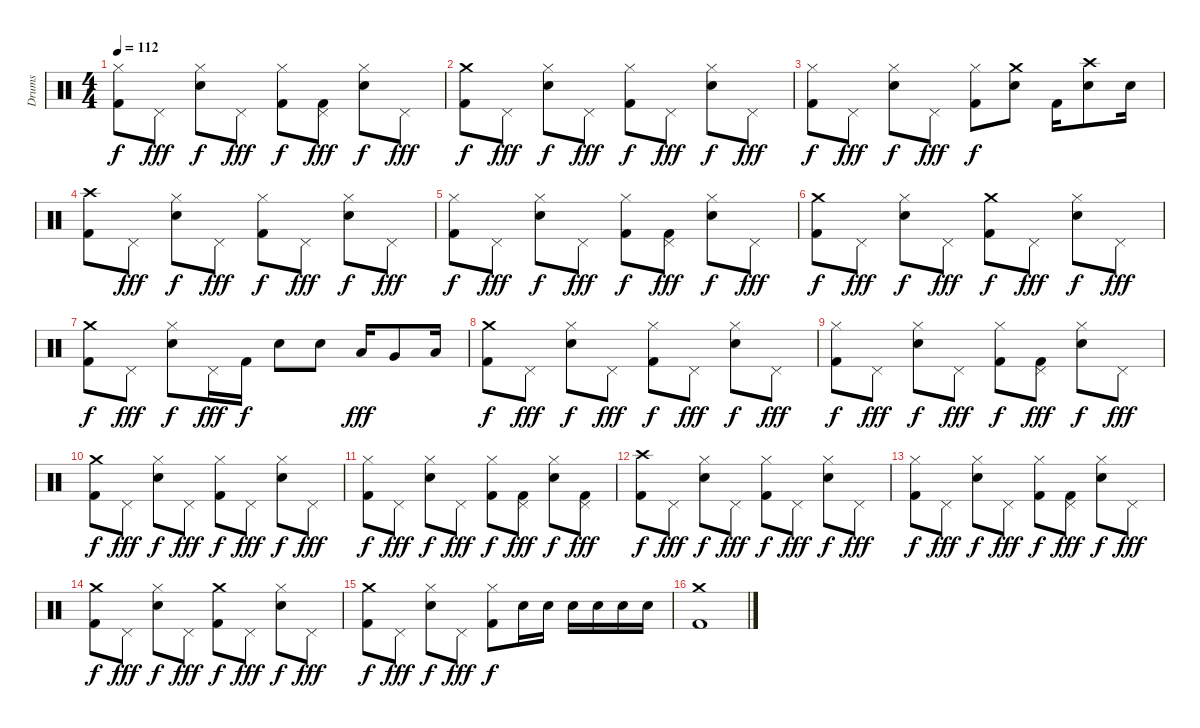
\track ("Drums" "Drums") {instrument percussion}
\staff {score}
\articulation defaults
\ts (4 4)
\tempo 112
\clef neutral
\ks c
("Kick (hit) 2" "Hi-Hat (closed)").8{dy f} "Pedal Hi-Hat (hit)".8{dy fff} ("Hi-Hat (closed)" "Snare (hit) 2").8{dy f} "Pedal Hi-Hat (hit)".8{dy fff} ("Kick (hit) 2" "Hi-Hat (closed)").8{dy f} ("Kick (hit) 2" "Pedal Hi-Hat (hit)").8{dy fff} ("Hi-Hat (closed)" "Snare (hit) 2").8{dy f} "Pedal Hi-Hat (hit)".8{dy fff} |
("Kick (hit) 2" "Crash medium (hit)").8{dy f} "Pedal Hi-Hat (hit)".8{dy fff} ("Hi-Hat (closed)" "Snare (hit) 2").8{dy f} "Pedal Hi-Hat (hit)".8{dy fff} ("Kick (hit) 2" "Hi-Hat (closed)").8{dy f} "Pedal Hi-Hat (hit)".8{dy fff} ("Hi-Hat (closed)" "Snare (hit) 2").8{dy f} "Pedal Hi-Hat (hit)".8{dy fff} |
("Kick (hit) 2" "Hi-Hat (closed)").8{dy f} "Pedal Hi-Hat (hit)".8{dy fff} ("Hi-Hat (closed)" "Snare (hit) 2").8{dy f} "Pedal Hi-Hat (hit)".8{dy fff} ("Kick (hit) 2" "Hi-Hat (closed)").8{dy f} ("Crash medium (hit)" "Snare (hit) 2").8 "Kick (hit) 2".16 ("Crash high (hit)" "Snare (hit) 2").8 "Snare (hit) 2".16 |
("Kick (hit) 2" "Crash high (hit)").8 "Pedal Hi-Hat (hit)".8{dy fff} ("Hi-Hat (closed)" "Snare (hit) 2").8{dy f} "Pedal Hi-Hat (hit)".8{dy fff} ("Kick (hit) 2" "Hi-Hat (closed)").8{dy f} "Pedal Hi-Hat (hit)".8{dy fff} ("Hi-Hat (closed)" "Snare (hit) 2").8{dy f} "Pedal Hi-Hat (hit)".8{dy fff} |
("Kick (hit) 2" "Hi-Hat (closed)").8{dy f} "Pedal Hi-Hat (hit)".8{dy fff} ("Hi-Hat (closed)" "Snare (hit) 2").8{dy f} "Pedal Hi-Hat (hit)".8{dy fff} ("Kick (hit) 2" "Hi-Hat (closed)").8{dy f} ("Kick (hit) 2" "Pedal Hi-Hat (hit)").8{dy fff} ("Hi-Hat (closed)" "Snare (hit) 2").8{dy f} "Pedal Hi-Hat (hit)".8{dy fff} |
("Kick (hit) 2" "Crash medium (hit)").8{dy f} "Pedal Hi-Hat (hit)".8{dy fff} ("Hi-Hat (closed)" "Snare (hit) 2").8{dy f} "Pedal Hi-Hat (hit)".8{dy fff} ("Kick (hit) 2" "Crash medium (hit)").8{dy f} "Pedal Hi-Hat (hit)".8{dy fff} ("Hi-Hat (closed)" "Snare (hit) 2").8{dy f} "Pedal Hi-Hat (hit)".8{dy fff} |
("Kick (hit) 2" "Crash medium (hit)").8{dy f} "Pedal Hi-Hat (hit)".8{dy fff} ("Hi-Hat (closed)" "Snare (hit) 2").8{dy f} "Pedal Hi-Hat (hit)".16{dy fff} "Kick (hit) 2".16{dy f} "Snare (hit) 2".8 "Snare (hit) 2".8 "Low Tom (hit)".16{dy fff} "Very Low Tom (hit)".8 "Low Floor Tom (hit)".16 |
("Kick (hit) 2" "Crash medium (hit)").8{dy f} "Pedal Hi-Hat (hit)".8{dy fff} ("Hi-Hat (closed)" "Snare (hit) 2").8{dy f} "Pedal Hi-Hat (hit)".8{dy fff} ("Kick (hit) 2" "Hi-Hat (closed)").8{dy f} "Pedal Hi-Hat (hit)".8{dy fff} ("Hi-Hat (closed)" "Snare (hit) 2").8{dy f} "Pedal Hi-Hat (hit)".8{dy fff} |
("Kick (hit) 2" "Hi-Hat (closed)").8{dy f} "Pedal Hi-Hat (hit)".8{dy fff} ("Hi-Hat (closed)" "Snare (hit) 2").8{dy f} "Pedal Hi-Hat (hit)".8{dy fff} ("Kick (hit) 2" "Hi-Hat (closed)").8{dy f} ("Kick (hit) 2" "Pedal Hi-Hat (hit)").8{dy fff} ("Hi-Hat (closed)" "Snare (hit) 2").8{dy f} "Pedal Hi-Hat (hit)".8{dy fff} |
("Kick (hit) 2" "Crash medium (hit)").8{dy f} "Pedal Hi-Hat (hit)".8{dy fff} ("Hi-Hat (closed)" "Snare (hit) 2").8{dy f} "Pedal Hi-Hat (hit)".8{dy fff} ("Kick (hit) 2" "Hi-Hat (closed)").8{dy f} "Pedal Hi-Hat (hit)".8{dy fff} ("Hi-Hat (closed)" "Snare (hit) 2").8{dy f} "Pedal Hi-Hat (hit)".8{dy fff} |
("Kick (hit) 2" "Hi-Hat (closed)").8{dy f} "Pedal Hi-Hat (hit)".8{dy fff} ("Hi-Hat (closed)" "Snare (hit) 2").8{dy f} "Pedal Hi-Hat (hit)".8{dy fff} ("Kick (hit) 2" "Hi-Hat (closed)").8{dy f} ("Kick (hit) 2" "Pedal Hi-Hat (hit)").8{dy fff} ("Hi-Hat (closed)" "Snare (hit) 2").8{dy f} ("Kick (hit) 2" "Pedal Hi-Hat (hit)").8{dy fff} |
("Kick (hit) 2" "Crash high (hit)").8{dy f} "Pedal Hi-Hat (hit)".8{dy fff} ("Hi-Hat (closed)" "Snare (hit) 2").8{dy f} "Pedal Hi-Hat (hit)".8{dy fff} ("Kick (hit) 2" "Hi-Hat (closed)").8{dy f} "Pedal Hi-Hat (hit)".8{dy fff} ("Hi-Hat (closed)" "Snare (hit) 2").8{dy f} "Pedal Hi-Hat (hit)".8{dy fff} |
("Kick (hit) 2" "Hi-Hat (closed)").8{dy f} "Pedal Hi-Hat (hit)".8{dy fff} ("Hi-Hat (closed)" "Snare (hit) 2").8{dy f} "Pedal Hi-Hat (hit)".8{dy fff} ("Kick (hit) 2" "Hi-Hat (closed)").8{dy f} ("Kick (hit) 2" "Pedal Hi-Hat (hit)").8{dy fff} ("Hi-Hat (closed)" "Snare (hit) 2").8{dy f} "Pedal Hi-Hat (hit)".8{dy fff} |
("Kick (hit) 2" "Crash medium (hit)").8{dy f} "Pedal Hi-Hat (hit)".8{dy fff} ("Hi-Hat (closed)" "Snare (hit) 2").8{dy f} "Pedal Hi-Hat (hit)".8{dy fff} ("Kick (hit) 2" "Crash medium (hit)").8{dy f} "Pedal Hi-Hat (hit)".8{dy fff} ("Hi-Hat (closed)" "Snare (hit) 2").8{dy f} "Pedal Hi-Hat (hit)".8{dy fff} |
("Kick (hit) 2" "Crash medium (hit)").8{dy f} "Pedal Hi-Hat (hit)".8{dy fff} ("Hi-Hat (closed)" "Snare (hit) 2").8{dy f} "Pedal Hi-Hat (hit)".8{dy fff} ("Kick (hit) 2" "Hi-Hat (closed)").8{dy f} "Snare (hit) 2".16 "Snare (hit) 2".16 "Snare (hit) 2".16 "Snare (hit) 2".16 "Snare (hit) 2".16 "Snare (hit) 2".16 |
("Kick (hit) 2" "Crash medium (hit)").1
